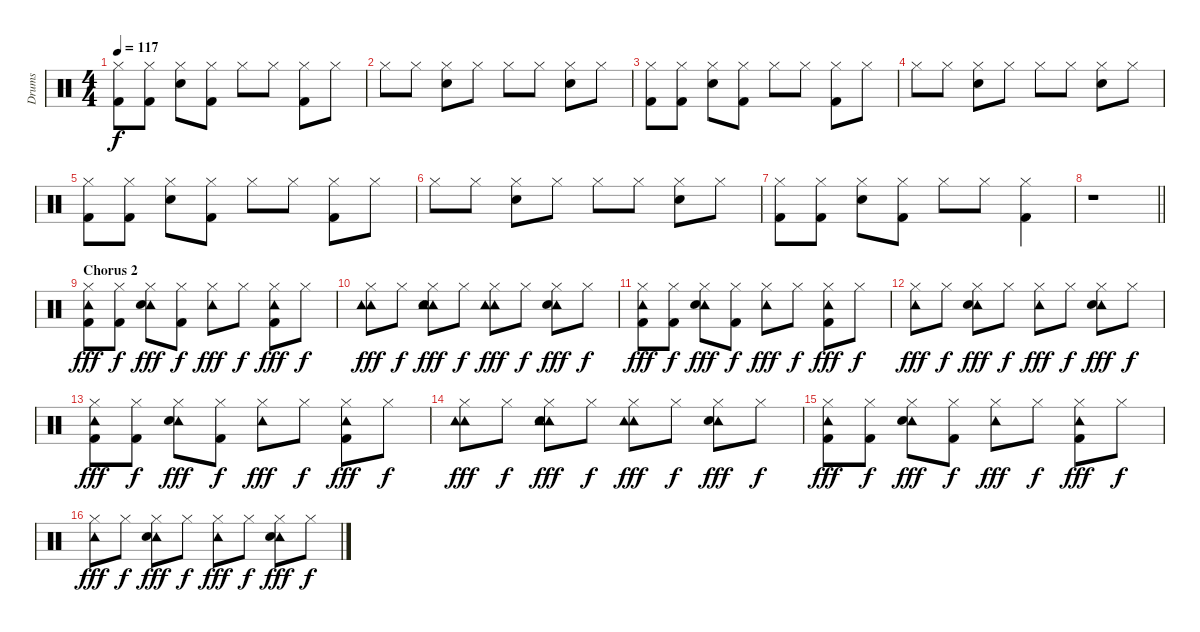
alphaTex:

\track ("Drums" "Drums") {instrument percussion}
\staff {score}
\articulation defaults
\ts (4 4)
\tempo 117
\clef neutral
\ks c
("Hi-Hat (closed)" "Kick (hit) 2").8{dy f} ("Hi-Hat (closed)" "Kick (hit) 2").8 ("Hi-Hat (closed)" "Snare (hit) 2").8 ("Hi-Hat (closed)" "Kick (hit) 2").8 "Hi-Hat (closed)".8 "Hi-Hat (closed)".8 ("Hi-Hat (closed)" "Kick (hit) 2").8 "Hi-Hat (closed)".8 |
"Hi-Hat (closed)".8 "Hi-Hat (closed)".8 ("Hi-Hat (closed)" "Snare (hit) 2").8 "Hi-Hat (closed)".8 "Hi-Hat (closed)".8 "Hi-Hat (closed)".8 ("Hi-Hat (closed)" "Snare (hit) 2").8 "Hi-Hat (closed)".8 |
("Hi-Hat (closed)" "Kick (hit) 2").8 ("Hi-Hat (closed)" "Kick (hit) 2").8 ("Hi-Hat (closed)" "Snare (hit) 2").8 ("Hi-Hat (closed)" "Kick (hit) 2").8 "Hi-Hat (closed)".8 "Hi-Hat (closed)".8 ("Hi-Hat (closed)" "Kick (hit) 2").8 "Hi-Hat (closed)".8 |
"Hi-Hat (closed)".8 "Hi-Hat (closed)".8 ("Hi-Hat (closed)" "Snare (hit) 2").8 "Hi-Hat (closed)".8 "Hi-Hat (closed)".8 "Hi-Hat (closed)".8 ("Hi-Hat (closed)" "Snare (hit) 2").8 "Hi-Hat (closed)".8 |
("Hi-Hat (closed)" "Kick (hit) 2").8 ("Hi-Hat (closed)" "Kick (hit) 2").8 ("Hi-Hat (closed)" "Snare (hit) 2").8 ("Hi-Hat (closed)" "Kick (hit) 2").8 "Hi-Hat (closed)".8 "Hi-Hat (closed)".8 ("Hi-Hat (closed)" "Kick (hit) 2").8 "Hi-Hat (closed)".8 |
"Hi-Hat (closed)".8 "Hi-Hat (closed)".8 ("Hi-Hat (closed)" "Snare (hit) 2").8 "Hi-Hat (closed)".8 "Hi-Hat (closed)".8 "Hi-Hat (closed)".8 ("Hi-Hat (closed)" "Snare (hit) 2").8 "Hi-Hat (closed)".8 |
("Hi-Hat (closed)" "Kick (hit) 2").8 ("Hi-Hat (closed)" "Kick (hit) 2").8 ("Hi-Hat (closed)" "Snare (hit) 2").8 ("Hi-Hat (closed)" "Kick (hit) 2").8 "Hi-Hat (closed)".8 "Hi-Hat (closed)".8 ("Hi-Hat (closed)" "Kick (hit) 2").4 |
\barLineRight lightlight
r.1 |
\section ("" "Chorus 2")
("Tambourine (hit)" "Hi-Hat (closed)" "Kick (hit) 2").8{dy fff} ("Hi-Hat (closed)" "Kick (hit) 2").8{dy f} ("Tambourine (hit)" "Hi-Hat (closed)" "Snare (hit) 2").8{dy fff} ("Hi-Hat (closed)" "Kick (hit) 2").8{dy f} ("Tambourine (hit)" "Hi-Hat (closed)").8{dy fff} "Hi-Hat (closed)".8{dy f} ("Tambourine (hit)" "Hi-Hat (closed)" "Kick (hit) 2").8{dy fff} "Hi-Hat (closed)".8{dy f} |
("Tambourine (hit)" "Tambourine (hit)" "Hi-Hat (closed)").8{dy fff} "Hi-Hat (closed)".8{dy f} ("Tambourine (hit)" "Tambourine (hit)" "Hi-Hat (closed)" "Snare (hit) 2").8{dy fff} "Hi-Hat (closed)".8{dy f} ("Tambourine (hit)" "Tambourine (hit)" "Hi-Hat (closed)").8{dy fff} "Hi-Hat (closed)".8{dy f} ("Tambourine (hit)" "Hi-Hat (closed)" "Snare (hit) 2").8{dy fff} "Hi-Hat (closed)".8{dy f} |
("Tambourine (hit)" "Hi-Hat (closed)" "Kick (hit) 2").8{dy fff} ("Hi-Hat (closed)" "Kick (hit) 2").8{dy f} ("Tambourine (hit)" "Hi-Hat (closed)" "Snare (hit) 2").8{dy fff} ("Hi-Hat (closed)" "Kick (hit) 2").8{dy f} ("Tambourine (hit)" "Hi-Hat (closed)").8{dy fff} "Hi-Hat (closed)".8{dy f} ("Tambourine (hit)" "Hi-Hat (closed)" "Kick (hit) 2").8{dy fff} "Hi-Hat (closed)".8{dy f} |
("Tambourine (hit)" "Hi-Hat (closed)").8{dy fff} "Hi-Hat (closed)".8{dy f} ("Tambourine (hit)" "Hi-Hat (closed)" "Snare (hit) 2").8{dy fff} "Hi-Hat (closed)".8{dy f} ("Tambourine (hit)" "Hi-Hat (closed)").8{dy fff} "Hi-Hat (closed)".8{dy f} ("Tambourine (hit)" "Hi-Hat (closed)" "Snare (hit) 2").8{dy fff} "Hi-Hat (closed)".8{dy f} |
("Tambourine (hit)" "Hi-Hat (closed)" "Kick (hit) 2").8{dy fff} ("Hi-Hat (closed)" "Kick (hit) 2").8{dy f} ("Tambourine (hit)" "Hi-Hat (closed)" "Snare (hit) 2").8{dy fff} ("Hi-Hat (closed)" "Kick (hit) 2").8{dy f} ("Tambourine (hit)" "Hi-Hat (closed)").8{dy fff} "Hi-Hat (closed)".8{dy f} ("Tambourine (hit)" "Hi-Hat (closed)" "Kick (hit) 2").8{dy fff} "Hi-Hat (closed)".8{dy f} |
("Tambourine (hit)" "Tambourine (hit)" "Hi-Hat (closed)").8{dy fff} "Hi-Hat (closed)".8{dy f} ("Tambourine (hit)" "Tambourine (hit)" "Hi-Hat (closed)" "Snare (hit) 2").8{dy fff} "Hi-Hat (closed)".8{dy f} ("Tambourine (hit)" "Tambourine (hit)" "Hi-Hat (closed)").8{dy fff} "Hi-Hat (closed)".8{dy f} ("Tambourine (hit)" "Hi-Hat (closed)" "Snare (hit) 2").8{dy fff} "Hi-Hat (closed)".8{dy f} |
("Tambourine (hit)" "Hi-Hat (closed)" "Kick (hit) 2").8{dy fff} ("Hi-Hat (closed)" "Kick (hit) 2").8{dy f} ("Tambourine (hit)" "Hi-Hat (closed)" "Snare (hit) 2").8{dy fff} ("Hi-Hat (closed)" "Kick (hit) 2").8{dy f} ("Tambourine (hit)" "Hi-Hat (closed)").8{dy fff} "Hi-Hat (closed)".8{dy f} ("Tambourine (hit)" "Hi-Hat (closed)" "Kick (hit) 2").8{dy fff} "Hi-Hat (closed)".8{dy f} |
("Tambourine (hit)" "Hi-Hat (closed)").8{dy fff} "Hi-Hat (closed)".8{dy f} ("Tambourine (hit)" "Hi-Hat (closed)" "Snare (hit) 2").8{dy fff} "Hi-Hat (closed)".8{dy f} ("Tambourine (hit)" "Hi-Hat (closed)").8{dy fff} "Hi-Hat (closed)".8{dy f} ("Tambourine (hit)" "Hi-Hat (closed)" "Snare (hit) 2").8{dy fff} "Hi-Hat (closed)".8{dy f}
